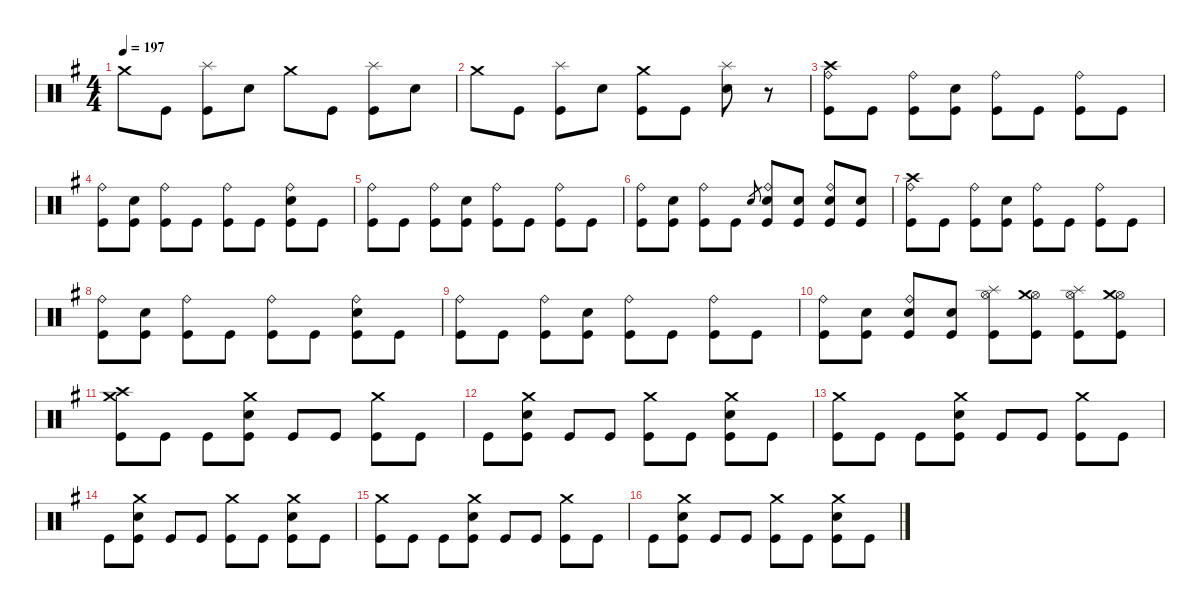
\defaultSystemsLayout 4
\hideDynamics
\bracketExtendMode nobrackets
\singleTrackTrackNamePolicy hidden
\multiTrackTrackNamePolicy hidden
\firstSystemTrackNameMode fullname
\firstSystemTrackNameOrientation horizontal
\otherSystemsTrackNameOrientation horizontal
\track ("Drums" "drm.") {defaultSystemsLayout 4 instrument percussion}
\staff {score}
\articulation defaults
\ts (4 4)
\tempo 197
\clef neutral
\ks eminor "Crash medium (hit)"{acc forcenatural}.8{dy mf beam Down} "Kick (hit)"{acc forcenatural}.8{dy f beam Down}
("Splash (hit)"{acc forcenatural} "Kick (hit)"{acc forcenatural}).8{dy mf beam Down} "Snare (hit) 2"{acc forcenatural}.8{dy f beam Down} "Crash medium (hit)"{acc forcenatural}.8{dy mf beam Down} "Kick (hit)"{acc forcenatural}.8{dy f beam Down} ("Splash (hit)"{acc forcenatural} "Kick (hit)"{acc forcenatural}).8{dy mf beam Down} "Snare (hit) 2"{acc forcenatural}.8{dy f beam Down} |
"Crash medium (hit)"{acc forcenatural}.8{dy mf beam Down} "Kick (hit)"{acc forcenatural}.8{dy f beam Down} ("Splash (hit)"{acc forcenatural} "Kick (hit)"{acc forcenatural}).8{dy mf beam Down} "Snare (hit) 2"{acc forcenatural}.8{dy f beam Down} ("Crash medium (hit)"{acc forcenatural} "Kick (hit)"{acc forcenatural}).8{dy mf beam Down} "Kick (hit)"{acc forcenatural}.8{dy f beam Down} ("Splash (hit)"{acc forcenatural} "Snare (hit) 2"{acc forcenatural}).8{dy mf beam Down} r.8{beam Down} |
("Crash high (hit)"{acc forcenatural} "Ride (bell)"{acc forcenatural} "Kick (hit)"{acc forcenatural}).8{dy f beam Down} "Kick (hit)"{acc forcenatural}.8{beam Down} ("Ride (bell)"{acc forcenatural} "Kick (hit)"{acc forcenatural}).8{beam Down} ("Snare (hit) 2"{acc forcenatural} "Kick (hit)"{acc forcenatural}).8{beam Down} ("Ride (bell)"{acc forcenatural} "Kick (hit)"{acc forcenatural}).8{beam Down} "Kick (hit)"{acc forcenatural}.8{beam Down} ("Ride (bell)"{acc forcenatural} "Kick (hit)"{acc forcenatural}).8{beam Down} "Kick (hit)"{acc forcenatural}.8{beam Down} |
("Ride (bell)"{acc forcenatural} "Kick (hit)"{acc forcenatural}).8{beam Down} ("Snare (hit) 2"{acc forcenatural} "Kick (hit)"{acc forcenatural}).8{beam Down} ("Ride (bell)"{acc forcenatural} "Kick (hit)"{acc forcenatural}).8{beam Down} "Kick (hit)"{acc forcenatural}.8{beam Down} ("Ride (bell)"{acc forcenatural} "Kick (hit)"{acc forcenatural}).8{beam Down} "Kick (hit)"{acc forcenatural}.8{beam Down} ("Ride (bell)"{acc forcenatural} "Snare (hit) 2"{acc forcenatural} "Kick (hit)"{acc forcenatural}).8{beam Down} "Kick (hit)"{acc forcenatural}.8{beam Down} |
("Ride (bell)"{acc forcenatural} "Kick (hit)"{acc forcenatural}).8{beam Down} "Kick (hit)"{acc forcenatural}.8{beam Down} ("Ride (bell)"{acc forcenatural} "Kick (hit)"{acc forcenatural}).8{beam Down} ("Snare (hit) 2"{acc forcenatural} "Kick (hit)"{acc forcenatural}).8{beam Down} ("Ride (bell)"{acc forcenatural} "Kick (hit)"{acc forcenatural}).8{beam Down} "Kick (hit)"{acc forcenatural}.8{beam Down} ("Ride (bell)"{acc forcenatural} "Kick (hit)"{acc forcenatural}).8{beam Down} "Kick (hit)"{acc forcenatural}.8{beam Down} |
("Ride (bell)"{acc forcenatural} "Kick (hit)"{acc forcenatural}).8{beam Down} ("Snare (hit) 2"{acc forcenatural} "Kick (hit)"{acc forcenatural}).8{beam Down} ("Ride (bell)"{acc forcenatural} "Kick (hit)"{acc forcenatural}).8{beam Down} "Kick (hit)"{acc forcenatural}.8{beam Down} "Electric Snare (hit)"{acc forcenatural}.8{gr dy mf beam Up} ("Ride (bell)"{acc forcenatural} "Snare (hit) 2"{acc forcenatural} "Kick (hit)"{acc forcenatural}).8{dy f beam Up} ("Snare (hit) 2"{acc forcenatural} "Kick (hit)"{acc forcenatural}).8{beam Up} ("Ride (bell)"{acc forcenatural} "Snare (hit) 2"{acc forcenatural} "Kick (hit)"{acc forcenatural}).8{beam Up} ("Snare (hit) 2"{acc forcenatural} "Kick (hit)"{acc forcenatural}).8{beam Up} |
("Crash high (hit)"{acc forcenatural} "Ride (bell)"{acc forcenatural} "Kick (hit)"{acc forcenatural}).8{beam Down} "Kick (hit)"{acc forcenatural}.8{beam Down} ("Ride (bell)"{acc forcenatural} "Kick (hit)"{acc forcenatural}).8{beam Down} ("Snare (hit) 2"{acc forcenatural} "Kick (hit)"{acc forcenatural}).8{beam Down} ("Ride (bell)"{acc forcenatural} "Kick (hit)"{acc forcenatural}).8{beam Down} "Kick (hit)"{acc forcenatural}.8{beam Down} ("Ride (bell)"{acc forcenatural} "Kick (hit)"{acc forcenatural}).8{beam Down} "Kick (hit)"{acc forcenatural}.8{beam Down} |
("Ride (bell)"{acc forcenatural} "Kick (hit)"{acc forcenatural}).8{beam Down} ("Snare (hit) 2"{acc forcenatural} "Kick (hit)"{acc forcenatural}).8{beam Down} ("Ride (bell)"{acc forcenatural} "Kick (hit)"{acc forcenatural}).8{beam Down} "Kick (hit)"{acc forcenatural}.8{beam Down} ("Ride (bell)"{acc forcenatural} "Kick (hit)"{acc forcenatural}).8{beam Down} "Kick (hit)"{acc forcenatural}.8{beam Down} ("Ride (bell)"{acc forcenatural} "Snare (hit) 2"{acc forcenatural} "Kick (hit)"{acc forcenatural}).8{beam Down} "Kick (hit)"{acc forcenatural}.8{beam Down} |
("Ride (bell)"{acc forcenatural} "Kick (hit)"{acc forcenatural}).8{beam Down} "Kick (hit)"{acc forcenatural}.8{beam Down} ("Ride (bell)"{acc forcenatural} "Kick (hit)"{acc forcenatural}).8{beam Down} ("Snare (hit) 2"{acc forcenatural} "Kick (hit)"{acc forcenatural}).8{beam Down} ("Ride (bell)"{acc forcenatural} "Kick (hit)"{acc forcenatural}).8{beam Down} "Kick (hit)"{acc forcenatural}.8{beam Down} ("Ride (bell)"{acc forcenatural} "Kick (hit)"{acc forcenatural}).8{beam Down} "Kick (hit)"{acc forcenatural}.8{beam Down} |
("Ride (bell)"{acc forcenatural} "Kick (hit)"{acc forcenatural}).8{beam Down} ("Snare (hit) 2"{acc forcenatural} "Kick (hit)"{acc forcenatural}).8{beam Down} ("Ride (bell)"{acc forcenatural} "Snare (hit) 2"{acc forcenatural} "Kick (hit)"{acc forcenatural}).8{beam Up} ("Snare (hit) 2"{acc forcenatural} "Kick (hit)"{acc forcenatural}).8{beam Up} ("Hi-Hat (open)"{acc forcenatural} "Splash (hit)"{acc forcenatural} "Kick (hit)"{acc forcenatural}).8{beam Down} ("Hi-Hat (open)"{acc forcenatural} "Crash medium (hit)"{acc forcenatural} "Kick (hit)"{acc forcenatural}).8{beam Down} ("Hi-Hat (open)"{acc forcenatural} "Splash (hit)"{acc forcenatural} "Kick (hit)"{acc forcenatural}).8{beam Down} ("Hi-Hat (open)"{acc forcenatural} "Crash medium (hit)"{acc forcenatural} "Kick (hit)"{acc forcenatural}).8{beam Down} |
("Crash high (hit)"{acc forcenatural} "Crash medium (hit)"{acc forcenatural} "Kick (hit)"{acc forcenatural}).8{beam Down} "Kick (hit)"{acc forcenatural}.8{beam Down} "Kick (hit)"{acc forcenatural}.8{beam Down} ("Crash medium (hit)"{acc forcenatural} "Snare (hit) 2"{acc forcenatural} "Kick (hit)"{acc forcenatural}).8{beam Down} "Kick (hit)"{acc forcenatural}.8{beam Up} "Kick (hit)"{acc forcenatural}.8{beam Up} ("Crash medium (hit)"{acc forcenatural} "Kick (hit)"{acc forcenatural}).8{beam Down} "Kick (hit)"{acc forcenatural}.8{beam Down} |
"Kick (hit)"{acc forcenatural}.8{beam Down} ("Crash medium (hit)"{acc forcenatural} "Snare (hit) 2"{acc forcenatural} "Kick (hit)"{acc forcenatural}).8{beam Down} "Kick (hit)"{acc forcenatural}.8{beam Up} "Kick (hit)"{acc forcenatural}.8{beam Up} ("Crash medium (hit)"{acc forcenatural} "Kick (hit)"{acc forcenatural}).8{beam Down} "Kick (hit)"{acc forcenatural}.8{beam Down} ("Crash medium (hit)"{acc forcenatural} "Snare (hit) 2"{acc forcenatural} "Kick (hit)"{acc forcenatural}).8{beam Down} "Kick (hit)"{acc forcenatural}.8{beam Down} |
("Crash medium (hit)"{acc forcenatural} "Kick (hit)"{acc forcenatural}).8{beam Down} "Kick (hit)"{acc forcenatural}.8{beam Down} "Kick (hit)"{acc forcenatural}.8{beam Down} ("Crash medium (hit)"{acc forcenatural} "Snare (hit) 2"{acc forcenatural} "Kick (hit)"{acc forcenatural}).8{beam Down} "Kick (hit)"{acc forcenatural}.8{beam Up} "Kick (hit)"{acc forcenatural}.8{beam Up} ("Crash medium (hit)"{acc forcenatural} "Kick (hit)"{acc forcenatural}).8{beam Down} "Kick (hit)"{acc forcenatural}.8{beam Down} |
"Kick (hit)"{acc forcenatural}.8{beam Down} ("Crash medium (hit)"{acc forcenatural} "Snare (hit) 2"{acc forcenatural} "Kick (hit)"{acc forcenatural}).8{beam Down} "Kick (hit)"{acc forcenatural}.8{beam Up} "Kick (hit)"{acc forcenatural}.8{beam Up} ("Crash medium (hit)"{acc forcenatural} "Kick (hit)"{acc forcenatural}).8{beam Down} "Kick (hit)"{acc forcenatural}.8{beam Down} ("Crash medium (hit)"{acc forcenatural} "Snare (hit) 2"{acc forcenatural} "Kick (hit)"{acc forcenatural}).8{beam Down} "Kick (hit)"{acc forcenatural}.8{beam Down} |
("Crash medium (hit)"{acc forcenatural} "Kick (hit)"{acc forcenatural}).8{beam Down} "Kick (hit)"{acc forcenatural}.8{beam Down} "Kick (hit)"{acc forcenatural}.8{beam Down} ("Crash medium (hit)"{acc forcenatural} "Snare (hit) 2"{acc forcenatural} "Kick (hit)"{acc forcenatural}).8{beam Down} "Kick (hit)"{acc forcenatural}.8{beam Up} "Kick (hit)"{acc forcenatural}.8{beam Up} ("Crash medium (hit)"{acc forcenatural} "Kick (hit)"{acc forcenatural}).8{beam Down} "Kick (hit)"{acc forcenatural}.8{beam Down} |
"Kick (hit)"{acc forcenatural}.8{beam Down} ("Crash medium (hit)"{acc forcenatural} "Snare (hit) 2"{acc forcenatural} "Kick (hit)"{acc forcenatural}).8{beam Down} "Kick (hit)"{acc forcenatural}.8{beam Up} "Kick (hit)"{acc forcenatural}.8{beam Up} ("Crash medium (hit)"{acc forcenatural} "Kick (hit)"{acc forcenatural}).8{beam Down} "Kick (hit)"{acc forcenatural}.8{beam Down} ("Crash medium (hit)"{acc forcenatural} "Snare (hit) 2"{acc forcenatural} "Kick (hit)"{acc forcenatural}).8{beam Down} "Kick (hit)"{acc forcenatural}.8{beam Down}
